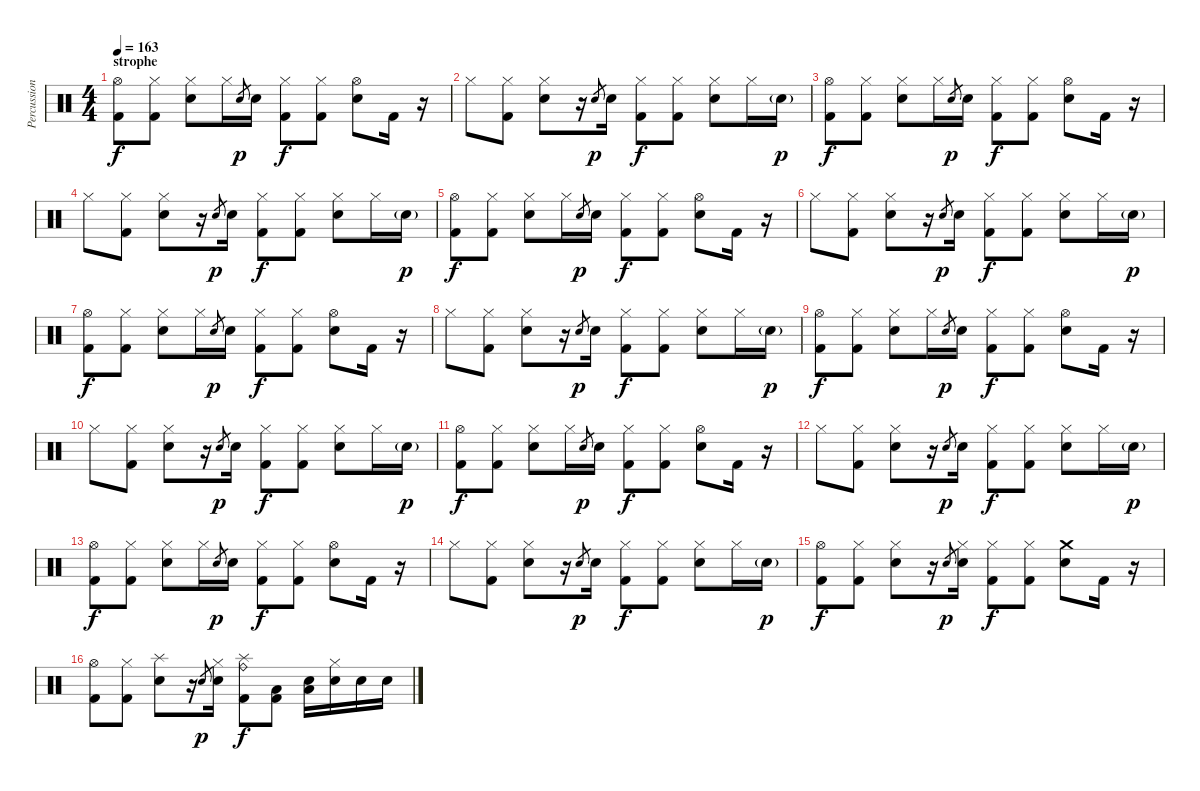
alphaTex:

\track ("Percussion" "Percussion") {instrument percussion}
\staff {score}
\articulation defaults
\ts (4 4)
\section ("" "strophe")
\tempo 163
\clef neutral
\ks c
("Hi-Hat (open)" "Kick (hit) 2").8{dy f} ("Hi-Hat (closed)" "Kick (hit) 2").8 ("Hi-Hat (closed)" "Electric Snare (hit)").8 "Hi-Hat (closed)".16 "Electric Snare (hit)".8{gr dy p} "Electric Snare (hit)".16 ("Hi-Hat (closed)" "Kick (hit) 2").8{dy f} ("Hi-Hat (closed)" "Kick (hit) 2").8 ("Hi-Hat (open)" "Electric Snare (hit)").8 "Kick (hit) 2".16 r.16 |
"Hi-Hat (closed)".8 ("Hi-Hat (closed)" "Kick (hit) 2").8 ("Hi-Hat (closed)" "Electric Snare (hit)").8 r.16 "Electric Snare (hit)".8{gr dy p} "Electric Snare (hit)".16 ("Hi-Hat (closed)" "Kick (hit) 2").8{dy f} ("Hi-Hat (closed)" "Kick (hit) 2").8 ("Hi-Hat (closed)" "Electric Snare (hit)").8 "Hi-Hat (closed)".16 "Electric Snare (hit)"{g}.16{dy p} |
("Hi-Hat (open)" "Kick (hit) 2").8{dy f} ("Hi-Hat (closed)" "Kick (hit) 2").8 ("Hi-Hat (closed)" "Electric Snare (hit)").8 "Hi-Hat (closed)".16 "Electric Snare (hit)".8{gr dy p} "Electric Snare (hit)".16 ("Hi-Hat (closed)" "Kick (hit) 2").8{dy f} ("Hi-Hat (closed)" "Kick (hit) 2").8 ("Hi-Hat (open)" "Electric Snare (hit)").8 "Kick (hit) 2".16 r.16 |
"Hi-Hat (closed)".8 ("Hi-Hat (closed)" "Kick (hit) 2").8 ("Hi-Hat (closed)" "Electric Snare (hit)").8 r.16 "Electric Snare (hit)".8{gr dy p} "Electric Snare (hit)".16 ("Hi-Hat (closed)" "Kick (hit) 2").8{dy f} ("Hi-Hat (closed)" "Kick (hit) 2").8 ("Hi-Hat (closed)" "Electric Snare (hit)").8 "Hi-Hat (closed)".16 "Electric Snare (hit)"{g}.16{dy p} |
("Hi-Hat (open)" "Kick (hit) 2").8{dy f} ("Hi-Hat (closed)" "Kick (hit) 2").8 ("Hi-Hat (closed)" "Electric Snare (hit)").8 "Hi-Hat (closed)".16 "Electric Snare (hit)".8{gr dy p} "Electric Snare (hit)".16 ("Hi-Hat (closed)" "Kick (hit) 2").8{dy f} ("Hi-Hat (closed)" "Kick (hit) 2").8 ("Hi-Hat (open)" "Electric Snare (hit)").8 "Kick (hit) 2".16 r.16 |
"Hi-Hat (closed)".8 ("Hi-Hat (closed)" "Kick (hit) 2").8 ("Hi-Hat (closed)" "Electric Snare (hit)").8 r.16 "Electric Snare (hit)".8{gr dy p} "Electric Snare (hit)".16 ("Hi-Hat (closed)" "Kick (hit) 2").8{dy f} ("Hi-Hat (closed)" "Kick (hit) 2").8 ("Hi-Hat (closed)" "Electric Snare (hit)").8 "Hi-Hat (closed)".16 "Electric Snare (hit)"{g}.16{dy p} |
("Hi-Hat (open)" "Kick (hit) 2").8{dy f} ("Hi-Hat (closed)" "Kick (hit) 2").8 ("Hi-Hat (closed)" "Electric Snare (hit)").8 "Hi-Hat (closed)".16 "Electric Snare (hit)".8{gr dy p} "Electric Snare (hit)".16 ("Hi-Hat (closed)" "Kick (hit) 2").8{dy f} ("Hi-Hat (closed)" "Kick (hit) 2").8 ("Hi-Hat (open)" "Electric Snare (hit)").8 "Kick (hit) 2".16 r.16 |
"Hi-Hat (closed)".8 ("Hi-Hat (closed)" "Kick (hit) 2").8 ("Hi-Hat (closed)" "Electric Snare (hit)").8 r.16 "Electric Snare (hit)".8{gr dy p} "Electric Snare (hit)".16 ("Hi-Hat (closed)" "Kick (hit) 2").8{dy f} ("Hi-Hat (closed)" "Kick (hit) 2").8 ("Hi-Hat (closed)" "Electric Snare (hit)").8 "Hi-Hat (closed)".16 "Electric Snare (hit)"{g}.16{dy p} |
("Hi-Hat (open)" "Kick (hit) 2").8{dy f} ("Hi-Hat (closed)" "Kick (hit) 2").8 ("Hi-Hat (closed)" "Electric Snare (hit)").8 "Hi-Hat (closed)".16 "Electric Snare (hit)".8{gr dy p} "Electric Snare (hit)".16 ("Hi-Hat (closed)" "Kick (hit) 2").8{dy f} ("Hi-Hat (closed)" "Kick (hit) 2").8 ("Hi-Hat (open)" "Electric Snare (hit)").8 "Kick (hit) 2".16 r.16 |
"Hi-Hat (closed)".8 ("Hi-Hat (closed)" "Kick (hit) 2").8 ("Hi-Hat (closed)" "Electric Snare (hit)").8 r.16 "Electric Snare (hit)".8{gr dy p} "Electric Snare (hit)".16 ("Hi-Hat (closed)" "Kick (hit) 2").8{dy f} ("Hi-Hat (closed)" "Kick (hit) 2").8 ("Hi-Hat (closed)" "Electric Snare (hit)").8 "Hi-Hat (closed)".16 "Electric Snare (hit)"{g}.16{dy p} |
("Hi-Hat (open)" "Kick (hit) 2").8{dy f} ("Hi-Hat (closed)" "Kick (hit) 2").8 ("Hi-Hat (closed)" "Electric Snare (hit)").8 "Hi-Hat (closed)".16 "Electric Snare (hit)".8{gr dy p} "Electric Snare (hit)".16 ("Hi-Hat (closed)" "Kick (hit) 2").8{dy f} ("Hi-Hat (closed)" "Kick (hit) 2").8 ("Hi-Hat (open)" "Electric Snare (hit)").8 "Kick (hit) 2".16 r.16 |
"Hi-Hat (closed)".8 ("Hi-Hat (closed)" "Kick (hit) 2").8 ("Hi-Hat (closed)" "Electric Snare (hit)").8 r.16 "Electric Snare (hit)".8{gr dy p} "Electric Snare (hit)".16 ("Hi-Hat (closed)" "Kick (hit) 2").8{dy f} ("Hi-Hat (closed)" "Kick (hit) 2").8 ("Hi-Hat (closed)" "Electric Snare (hit)").8 "Hi-Hat (closed)".16 "Electric Snare (hit)"{g}.16{dy p} |
("Hi-Hat (open)" "Kick (hit) 2").8{dy f} ("Hi-Hat (closed)" "Kick (hit) 2").8 ("Hi-Hat (closed)" "Electric Snare (hit)").8 "Hi-Hat (closed)".16 "Electric Snare (hit)".8{gr dy p} "Electric Snare (hit)".16 ("Hi-Hat (closed)" "Kick (hit) 2").8{dy f} ("Hi-Hat (closed)" "Kick (hit) 2").8 ("Hi-Hat (open)" "Electric Snare (hit)").8 "Kick (hit) 2".16 r.16 |
"Hi-Hat (closed)".8 ("Hi-Hat (closed)" "Kick (hit) 2").8 ("Hi-Hat (closed)" "Electric Snare (hit)").8 r.16 "Electric Snare (hit)".8{gr dy p} "Electric Snare (hit)".16 ("Hi-Hat (closed)" "Kick (hit) 2").8{dy f} ("Hi-Hat (closed)" "Kick (hit) 2").8 ("Hi-Hat (closed)" "Electric Snare (hit)").8 "Hi-Hat (closed)".16 "Electric Snare (hit)"{g}.16{dy p} |
("Hi-Hat (open)" "Kick (hit) 2").8{dy f} ("Hi-Hat (closed)" "Kick (hit) 2").8 ("Hi-Hat (closed)" "Electric Snare (hit)").8 r.16 "Electric Snare (hit)".8{gr dy p} ("Hi-Hat (closed)" "Electric Snare (hit)").16 ("Hi-Hat (closed)" "Kick (hit) 2").8{dy f} ("Hi-Hat (closed)" "Kick (hit) 2").8 ("Crash medium (hit)" "Electric Snare (hit)").8 "Kick (hit) 2".16 r.16 |
("Hi-Hat (open)" "Kick (hit) 2").8 ("Hi-Hat (closed)" "Kick (hit) 2").8 ("Splash (hit)" "Electric Snare (hit)").8 r.16 "Electric Snare (hit)".8{gr dy p} ("Hi-Hat (closed)" "Electric Snare (hit)").16 ("Splash (hit)" "Ride (bell)" "Kick (hit) 2").8{dy f} ("Low Floor Tom (hit)" "Kick (hit) 2").8 ("Low Floor Tom (hit)" "Electric Snare (hit)").16 ("Hi-Hat (closed)" "Electric Snare (hit)").16 "Electric Snare (hit)".16 "Electric Snare (hit)".16
